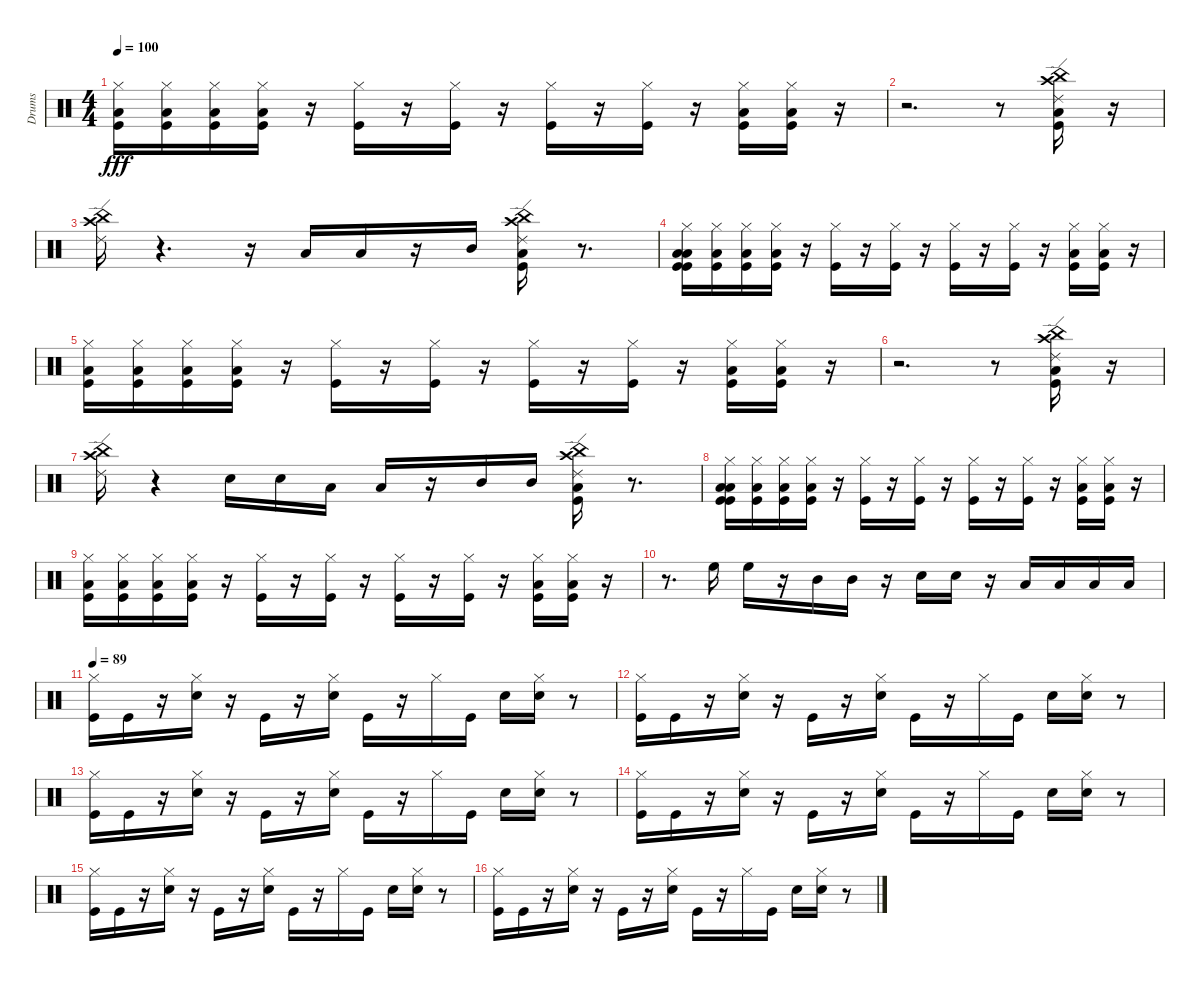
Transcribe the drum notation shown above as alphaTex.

\track ("Drums" "Drums") {instrument percussion}
\staff {score}
\articulation defaults
\ts (4 4)
\tempo 100
\clef neutral
\ks c
("Hi-Hat (closed)" "Low Tom (hit)" "Kick (hit)").16{dy fff} ("Hi-Hat (closed)" "Low Tom (hit)" "Kick (hit)").16 ("Hi-Hat (closed)" "Low Tom (hit)" "Kick (hit)").16 ("Hi-Hat (closed)" "Low Tom (hit)" "Kick (hit)").16 r.16 ("Hi-Hat (closed)" "Kick (hit)").16 r.16 ("Hi-Hat (closed)" "Kick (hit)").16 r.16 ("Hi-Hat (closed)" "Kick (hit)").16 r.16 ("Hi-Hat (closed)" "Kick (hit)").16 r.16 ("Hi-Hat (closed)" "Low Tom (hit)" "Kick (hit)").16 ("Hi-Hat (closed)" "Low Tom (hit)" "Kick (hit)").16 r.16 |
r.2{d} r.8 ("Crash high (hit)" "China (hit)" "Ride (edge) 2" "Low Tom (hit)" "Kick (hit)").16 r.16 |
("Ride (edge) 2" "Crash high (hit)" "China (hit)").16 r.4{d} r.16 "Low Tom (hit)".16 "Low Tom (hit)".16 r.16 "Mid Tom (hit)".16 ("Ride (edge) 2" "Crash high (hit)" "China (hit)" "Low Tom (hit)" "Kick (hit)").16 r.8{d} |
("Low Tom (hit)" "Kick (hit)" "Hi-Hat (closed)" "Low Tom (hit)" "Kick (hit)").16 ("Hi-Hat (closed)" "Low Tom (hit)" "Kick (hit)").16 ("Hi-Hat (closed)" "Low Tom (hit)" "Kick (hit)").16 ("Hi-Hat (closed)" "Low Tom (hit)" "Kick (hit)").16 r.16 ("Hi-Hat (closed)" "Kick (hit)").16 r.16 ("Hi-Hat (closed)" "Kick (hit)").16 r.16 ("Hi-Hat (closed)" "Kick (hit)").16 r.16 ("Hi-Hat (closed)" "Kick (hit)").16 r.16 ("Hi-Hat (closed)" "Low Tom (hit)" "Kick (hit)").16 ("Hi-Hat (closed)" "Low Tom (hit)" "Kick (hit)").16 r.16 |
("Hi-Hat (closed)" "Low Tom (hit)" "Kick (hit)").16 ("Hi-Hat (closed)" "Low Tom (hit)" "Kick (hit)").16 ("Hi-Hat (closed)" "Low Tom (hit)" "Kick (hit)").16 ("Hi-Hat (closed)" "Low Tom (hit)" "Kick (hit)").16 r.16 ("Hi-Hat (closed)" "Kick (hit)").16 r.16 ("Hi-Hat (closed)" "Kick (hit)").16 r.16 ("Hi-Hat (closed)" "Kick (hit)").16 r.16 ("Hi-Hat (closed)" "Kick (hit)").16 r.16 ("Hi-Hat (closed)" "Low Tom (hit)" "Kick (hit)").16 ("Hi-Hat (closed)" "Low Tom (hit)" "Kick (hit)").16 r.16 |
r.2{d} r.8 ("Ride (edge) 2" "Crash high (hit)" "China (hit)" "Low Tom (hit)" "Kick (hit)").16 r.16 |
("Ride (edge) 2" "Crash high (hit)" "China (hit)").16 r.4 "Electric Snare (hit)".16 "Electric Snare (hit)".16 "Low Tom (hit)".16 "Low Tom (hit)".16 r.16 "Mid Tom (hit)".16 "Mid Tom (hit)".16 ("Ride (edge) 2" "Crash high (hit)" "China (hit)" "Low Tom (hit)" "Kick (hit)").16 r.8{d} |
("Low Tom (hit)" "Kick (hit)" "Hi-Hat (closed)" "Low Tom (hit)" "Kick (hit)").16 ("Hi-Hat (closed)" "Low Tom (hit)" "Kick (hit)").16 ("Hi-Hat (closed)" "Low Tom (hit)" "Kick (hit)").16 ("Hi-Hat (closed)" "Low Tom (hit)" "Kick (hit)").16 r.16 ("Hi-Hat (closed)" "Kick (hit)").16 r.16 ("Hi-Hat (closed)" "Kick (hit)").16 r.16 ("Hi-Hat (closed)" "Kick (hit)").16 r.16 ("Hi-Hat (closed)" "Kick (hit)").16 r.16 ("Hi-Hat (closed)" "Low Tom (hit)" "Kick (hit)").16 ("Hi-Hat (closed)" "Low Tom (hit)" "Kick (hit)").16 r.16 |
("Hi-Hat (closed)" "Low Tom (hit)" "Kick (hit)").16 ("Hi-Hat (closed)" "Low Tom (hit)" "Kick (hit)").16 ("Hi-Hat (closed)" "Low Tom (hit)" "Kick (hit)").16 ("Hi-Hat (closed)" "Low Tom (hit)" "Kick (hit)").16 r.16 ("Hi-Hat (closed)" "Kick (hit)").16 r.16 ("Hi-Hat (closed)" "Kick (hit)").16 r.16 ("Hi-Hat (closed)" "Kick (hit)").16 r.16 ("Hi-Hat (closed)" "Kick (hit)").16 r.16 ("Hi-Hat (closed)" "Low Tom (hit)" "Kick (hit)").16 ("Hi-Hat (closed)" "Low Tom (hit)" "Kick (hit)").16 r.16 |
r.8{d} "High Floor Tom (hit)".16 "High Floor Tom (hit)".16 r.16 "Mid Tom (hit)".16 "Mid Tom (hit)".16 r.16 "Electric Snare (hit)".16 "Electric Snare (hit)".16 r.16 "Low Tom (hit)".16 "Low Tom (hit)".16 "Low Tom (hit)".16 "Low Tom (hit)".16 |
\tempo 89
("Kick (hit)" "Hi-Hat (closed)").16 "Kick (hit)".16 r.16 ("Electric Snare (hit)" "Hi-Hat (closed)").16 r.16 "Kick (hit)".16 r.16 ("Electric Snare (hit)" "Hi-Hat (closed)").16 "Kick (hit)".16 r.16 "Hi-Hat (closed)".16 "Kick (hit)".16 "Electric Snare (hit)".16 ("Electric Snare (hit)" "Hi-Hat (closed)").16 r.8 |
("Kick (hit)" "Hi-Hat (closed)").16 "Kick (hit)".16 r.16 ("Electric Snare (hit)" "Hi-Hat (closed)").16 r.16 "Kick (hit)".16 r.16 ("Electric Snare (hit)" "Hi-Hat (closed)").16 "Kick (hit)".16 r.16 "Hi-Hat (closed)".16 "Kick (hit)".16 "Electric Snare (hit)".16 ("Electric Snare (hit)" "Hi-Hat (closed)").16 r.8 |
("Kick (hit)" "Hi-Hat (closed)").16 "Kick (hit)".16 r.16 ("Electric Snare (hit)" "Hi-Hat (closed)").16 r.16 "Kick (hit)".16 r.16 ("Electric Snare (hit)" "Hi-Hat (closed)").16 "Kick (hit)".16 r.16 "Hi-Hat (closed)".16 "Kick (hit)".16 "Electric Snare (hit)".16 ("Electric Snare (hit)" "Hi-Hat (closed)").16 r.8 |
("Kick (hit)" "Hi-Hat (closed)").16 "Kick (hit)".16 r.16 ("Electric Snare (hit)" "Hi-Hat (closed)").16 r.16 "Kick (hit)".16 r.16 ("Electric Snare (hit)" "Hi-Hat (closed)").16 "Kick (hit)".16 r.16 "Hi-Hat (closed)".16 "Kick (hit)".16 "Electric Snare (hit)".16 ("Electric Snare (hit)" "Hi-Hat (closed)").16 r.8 |
("Kick (hit)" "Hi-Hat (closed)").16 "Kick (hit)".16 r.16 ("Electric Snare (hit)" "Hi-Hat (closed)").16 r.16 "Kick (hit)".16 r.16 ("Electric Snare (hit)" "Hi-Hat (closed)").16 "Kick (hit)".16 r.16 "Hi-Hat (closed)".16 "Kick (hit)".16 "Electric Snare (hit)".16 ("Electric Snare (hit)" "Hi-Hat (closed)").16 r.8 |
("Kick (hit)" "Hi-Hat (closed)").16 "Kick (hit)".16 r.16 ("Electric Snare (hit)" "Hi-Hat (closed)").16 r.16 "Kick (hit)".16 r.16 ("Electric Snare (hit)" "Hi-Hat (closed)").16 "Kick (hit)".16 r.16 "Hi-Hat (closed)".16 "Kick (hit)".16 "Electric Snare (hit)".16 ("Electric Snare (hit)" "Hi-Hat (closed)").16 r.8
